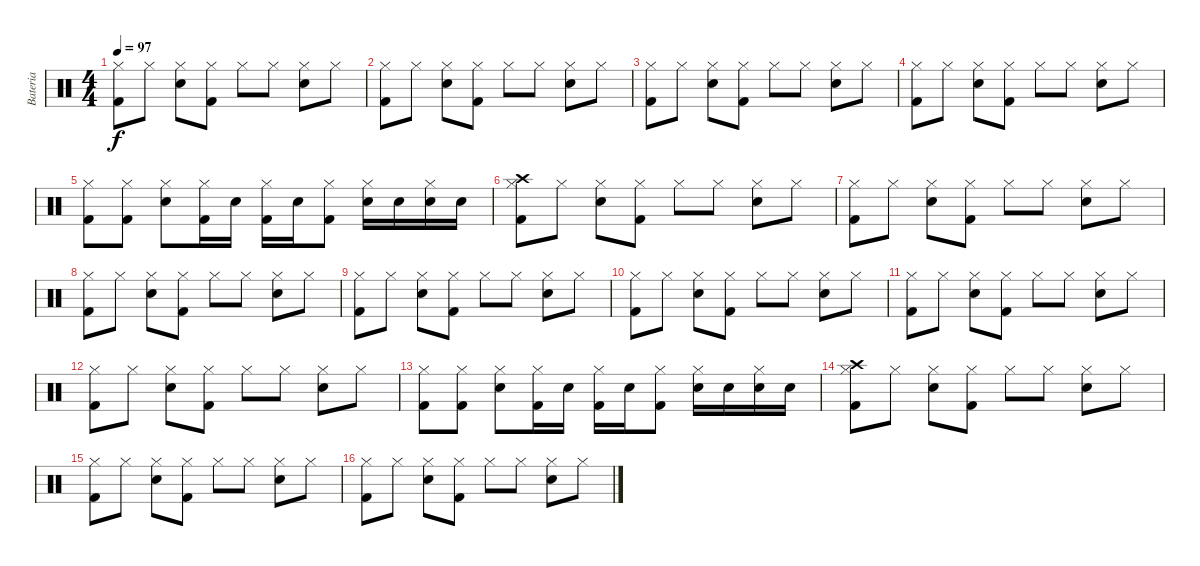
\track ("Bateria" "Bateria") {instrument percussion}
\staff {score}
\articulation defaults
\ts (4 4)
\tempo 97
\clef neutral
\ks c
("Kick (hit) 2" "Hi-Hat (closed)").8{dy f} "Hi-Hat (closed)".8 ("Electric Snare (hit)" "Hi-Hat (closed)").8 ("Kick (hit) 2" "Hi-Hat (closed)").8 "Hi-Hat (closed)".8 "Hi-Hat (closed)".8 ("Electric Snare (hit)" "Hi-Hat (closed)").8 "Hi-Hat (closed)".8 |
("Kick (hit) 2" "Hi-Hat (closed)").8 "Hi-Hat (closed)".8 ("Electric Snare (hit)" "Hi-Hat (closed)").8 ("Kick (hit) 2" "Hi-Hat (closed)").8 "Hi-Hat (closed)".8 "Hi-Hat (closed)".8 ("Electric Snare (hit)" "Hi-Hat (closed)").8 "Hi-Hat (closed)".8 |
("Kick (hit) 2" "Hi-Hat (closed)").8 "Hi-Hat (closed)".8 ("Electric Snare (hit)" "Hi-Hat (closed)").8 ("Kick (hit) 2" "Hi-Hat (closed)").8 "Hi-Hat (closed)".8 "Hi-Hat (closed)".8 ("Electric Snare (hit)" "Hi-Hat (closed)").8 "Hi-Hat (closed)".8 |
("Kick (hit) 2" "Hi-Hat (closed)").8 "Hi-Hat (closed)".8 ("Electric Snare (hit)" "Hi-Hat (closed)").8 ("Kick (hit) 2" "Hi-Hat (closed)").8 "Hi-Hat (closed)".8 "Hi-Hat (closed)".8 ("Electric Snare (hit)" "Hi-Hat (closed)").8 "Hi-Hat (closed)".8 |
("Kick (hit) 2" "Hi-Hat (closed)").8 ("Kick (hit) 2" "Hi-Hat (closed)").8 ("Electric Snare (hit)" "Hi-Hat (closed)").8 ("Kick (hit) 2" "Hi-Hat (closed)").16 "Electric Snare (hit)".16 ("Kick (hit) 2" "Hi-Hat (closed)").16 "Electric Snare (hit)".16 ("Kick (hit) 2" "Hi-Hat (closed)").8 ("Electric Snare (hit)" "Hi-Hat (closed)").16 "Electric Snare (hit)".16 ("Snare (hit) 2" "Hi-Hat (closed)").16 "Snare (hit) 2".16 |
("Kick (hit) 2" "Hi-Hat (closed)" "Crash high (hit)").8 "Hi-Hat (closed)".8 ("Electric Snare (hit)" "Hi-Hat (closed)").8 ("Kick (hit) 2" "Hi-Hat (closed)").8 "Hi-Hat (closed)".8 "Hi-Hat (closed)".8 ("Electric Snare (hit)" "Hi-Hat (closed)").8 "Hi-Hat (closed)".8 |
("Kick (hit) 2" "Hi-Hat (closed)").8 "Hi-Hat (closed)".8 ("Electric Snare (hit)" "Hi-Hat (closed)").8 ("Kick (hit) 2" "Hi-Hat (closed)").8 "Hi-Hat (closed)".8 "Hi-Hat (closed)".8 ("Electric Snare (hit)" "Hi-Hat (closed)").8 "Hi-Hat (closed)".8 |
("Kick (hit) 2" "Hi-Hat (closed)").8 "Hi-Hat (closed)".8 ("Electric Snare (hit)" "Hi-Hat (closed)").8 ("Kick (hit) 2" "Hi-Hat (closed)").8 "Hi-Hat (closed)".8 "Hi-Hat (closed)".8 ("Electric Snare (hit)" "Hi-Hat (closed)").8 "Hi-Hat (closed)".8 |
("Kick (hit) 2" "Hi-Hat (closed)").8 "Hi-Hat (closed)".8 ("Electric Snare (hit)" "Hi-Hat (closed)").8 ("Kick (hit) 2" "Hi-Hat (closed)").8 "Hi-Hat (closed)".8 "Hi-Hat (closed)".8 ("Electric Snare (hit)" "Hi-Hat (closed)").8 "Hi-Hat (closed)".8 |
("Kick (hit) 2" "Hi-Hat (closed)").8 "Hi-Hat (closed)".8 ("Electric Snare (hit)" "Hi-Hat (closed)").8 ("Kick (hit) 2" "Hi-Hat (closed)").8 "Hi-Hat (closed)".8 "Hi-Hat (closed)".8 ("Electric Snare (hit)" "Hi-Hat (closed)").8 "Hi-Hat (closed)".8 |
("Kick (hit) 2" "Hi-Hat (closed)").8 "Hi-Hat (closed)".8 ("Electric Snare (hit)" "Hi-Hat (closed)").8 ("Kick (hit) 2" "Hi-Hat (closed)").8 "Hi-Hat (closed)".8 "Hi-Hat (closed)".8 ("Electric Snare (hit)" "Hi-Hat (closed)").8 "Hi-Hat (closed)".8 |
("Kick (hit) 2" "Hi-Hat (closed)").8 "Hi-Hat (closed)".8 ("Electric Snare (hit)" "Hi-Hat (closed)").8 ("Kick (hit) 2" "Hi-Hat (closed)").8 "Hi-Hat (closed)".8 "Hi-Hat (closed)".8 ("Electric Snare (hit)" "Hi-Hat (closed)").8 "Hi-Hat (closed)".8 |
("Kick (hit) 2" "Hi-Hat (closed)").8 ("Kick (hit) 2" "Hi-Hat (closed)").8 ("Electric Snare (hit)" "Hi-Hat (closed)").8 ("Kick (hit) 2" "Hi-Hat (closed)").16 "Electric Snare (hit)".16 ("Kick (hit) 2" "Hi-Hat (closed)").16 "Electric Snare (hit)".16 ("Kick (hit) 2" "Hi-Hat (closed)").8 ("Electric Snare (hit)" "Hi-Hat (closed)").16 "Electric Snare (hit)".16 ("Snare (hit) 2" "Hi-Hat (closed)").16 "Snare (hit) 2".16 |
("Kick (hit) 2" "Hi-Hat (closed)" "Crash high (hit)").8 "Hi-Hat (closed)".8 ("Electric Snare (hit)" "Hi-Hat (closed)").8 ("Kick (hit) 2" "Hi-Hat (closed)").8 "Hi-Hat (closed)".8 "Hi-Hat (closed)".8 ("Electric Snare (hit)" "Hi-Hat (closed)").8 "Hi-Hat (closed)".8 |
("Kick (hit) 2" "Hi-Hat (closed)").8 "Hi-Hat (closed)".8 ("Electric Snare (hit)" "Hi-Hat (closed)").8 ("Kick (hit) 2" "Hi-Hat (closed)").8 "Hi-Hat (closed)".8 "Hi-Hat (closed)".8 ("Electric Snare (hit)" "Hi-Hat (closed)").8 "Hi-Hat (closed)".8 |
("Kick (hit) 2" "Hi-Hat (closed)").8 "Hi-Hat (closed)".8 ("Electric Snare (hit)" "Hi-Hat (closed)").8 ("Kick (hit) 2" "Hi-Hat (closed)").8 "Hi-Hat (closed)".8 "Hi-Hat (closed)".8 ("Electric Snare (hit)" "Hi-Hat (closed)").8 "Hi-Hat (closed)".8
